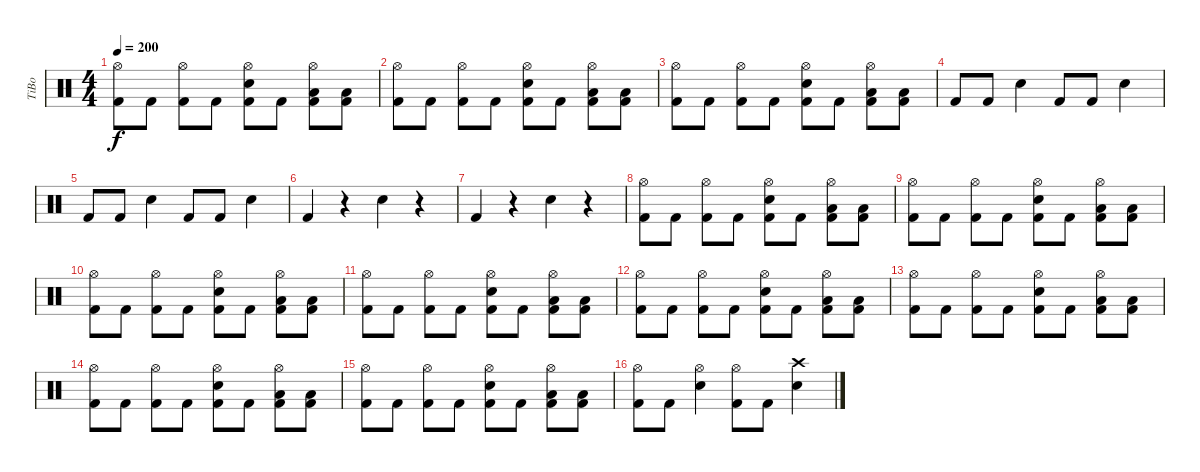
\track ("TiBo" "TiBo") {instrument percussion}
\staff {score}
\articulation defaults
\ts (4 4)
\tempo 200
\clef neutral
\ks c
("Hi-Hat (open)" "Kick (hit) 2").8{dy f} "Kick (hit) 2".8 ("Hi-Hat (open)" "Kick (hit) 2").8 "Kick (hit) 2".8 ("Hi-Hat (open)" "Snare (hit) 2" "Kick (hit) 2").8 "Kick (hit) 2".8 ("Hi-Hat (open)" "Low Tom (hit)" "Kick (hit) 2").8 ("Low Tom (hit)" "Kick (hit) 2").8 |
("Hi-Hat (open)" "Kick (hit) 2").8 "Kick (hit) 2".8 ("Hi-Hat (open)" "Kick (hit) 2").8 "Kick (hit) 2".8 ("Hi-Hat (open)" "Snare (hit) 2" "Kick (hit) 2").8 "Kick (hit) 2".8 ("Hi-Hat (open)" "Low Tom (hit)" "Kick (hit) 2").8 ("Low Tom (hit)" "Kick (hit) 2").8 |
("Hi-Hat (open)" "Kick (hit) 2").8 "Kick (hit) 2".8 ("Hi-Hat (open)" "Kick (hit) 2").8 "Kick (hit) 2".8 ("Hi-Hat (open)" "Snare (hit) 2" "Kick (hit) 2").8 "Kick (hit) 2".8 ("Hi-Hat (open)" "Low Tom (hit)" "Kick (hit) 2").8 ("Low Tom (hit)" "Kick (hit) 2").8 |
"Kick (hit) 2".8 "Kick (hit) 2".8 "Snare (hit) 2".4 "Kick (hit) 2".8 "Kick (hit) 2".8 "Snare (hit) 2".4 |
"Kick (hit) 2".8 "Kick (hit) 2".8 "Snare (hit) 2".4 "Kick (hit) 2".8 "Kick (hit) 2".8 "Snare (hit) 2".4 |
"Kick (hit) 2".4 r.4 "Snare (hit) 2".4 r.4 |
"Kick (hit) 2".4 r.4 "Snare (hit) 2".4 r.4 |
("Hi-Hat (open)" "Kick (hit) 2").8 "Kick (hit) 2".8 ("Hi-Hat (open)" "Kick (hit) 2").8 "Kick (hit) 2".8 ("Hi-Hat (open)" "Snare (hit) 2" "Kick (hit) 2").8 "Kick (hit) 2".8 ("Hi-Hat (open)" "Low Tom (hit)" "Kick (hit) 2").8 ("Low Tom (hit)" "Kick (hit) 2").8 |
("Hi-Hat (open)" "Kick (hit) 2").8 "Kick (hit) 2".8 ("Hi-Hat (open)" "Kick (hit) 2").8 "Kick (hit) 2".8 ("Hi-Hat (open)" "Snare (hit) 2" "Kick (hit) 2").8 "Kick (hit) 2".8 ("Hi-Hat (open)" "Low Tom (hit)" "Kick (hit) 2").8 ("Low Tom (hit)" "Kick (hit) 2").8 |
("Hi-Hat (open)" "Kick (hit) 2").8 "Kick (hit) 2".8 ("Hi-Hat (open)" "Kick (hit) 2").8 "Kick (hit) 2".8 ("Hi-Hat (open)" "Snare (hit) 2" "Kick (hit) 2").8 "Kick (hit) 2".8 ("Hi-Hat (open)" "Low Tom (hit)" "Kick (hit) 2").8 ("Low Tom (hit)" "Kick (hit) 2").8 |
("Hi-Hat (open)" "Kick (hit) 2").8 "Kick (hit) 2".8 ("Hi-Hat (open)" "Kick (hit) 2").8 "Kick (hit) 2".8 ("Hi-Hat (open)" "Snare (hit) 2" "Kick (hit) 2").8 "Kick (hit) 2".8 ("Hi-Hat (open)" "Low Tom (hit)" "Kick (hit) 2").8 ("Low Tom (hit)" "Kick (hit) 2").8 |
("Hi-Hat (open)" "Kick (hit) 2").8 "Kick (hit) 2".8 ("Hi-Hat (open)" "Kick (hit) 2").8 "Kick (hit) 2".8 ("Hi-Hat (open)" "Snare (hit) 2" "Kick (hit) 2").8 "Kick (hit) 2".8 ("Hi-Hat (open)" "Low Tom (hit)" "Kick (hit) 2").8 ("Low Tom (hit)" "Kick (hit) 2").8 |
("Hi-Hat (open)" "Kick (hit) 2").8 "Kick (hit) 2".8 ("Hi-Hat (open)" "Kick (hit) 2").8 "Kick (hit) 2".8 ("Hi-Hat (open)" "Snare (hit) 2" "Kick (hit) 2").8 "Kick (hit) 2".8 ("Hi-Hat (open)" "Low Tom (hit)" "Kick (hit) 2").8 ("Low Tom (hit)" "Kick (hit) 2").8 |
("Hi-Hat (open)" "Kick (hit) 2").8 "Kick (hit) 2".8 ("Hi-Hat (open)" "Kick (hit) 2").8 "Kick (hit) 2".8 ("Hi-Hat (open)" "Snare (hit) 2" "Kick (hit) 2").8 "Kick (hit) 2".8 ("Hi-Hat (open)" "Low Tom (hit)" "Kick (hit) 2").8 ("Low Tom (hit)" "Kick (hit) 2").8 |
("Hi-Hat (open)" "Kick (hit) 2").8 "Kick (hit) 2".8 ("Hi-Hat (open)" "Kick (hit) 2").8 "Kick (hit) 2".8 ("Hi-Hat (open)" "Snare (hit) 2" "Kick (hit) 2").8 "Kick (hit) 2".8 ("Hi-Hat (open)" "Low Tom (hit)" "Kick (hit) 2").8 ("Low Tom (hit)" "Kick (hit) 2").8 |
("Hi-Hat (open)" "Kick (hit) 2").8 "Kick (hit) 2".8 ("Hi-Hat (open)" "Snare (hit) 2").4 ("Hi-Hat (open)" "Kick (hit) 2").8 "Kick (hit) 2".8 ("Crash high (hit)" "Snare (hit) 2").4
